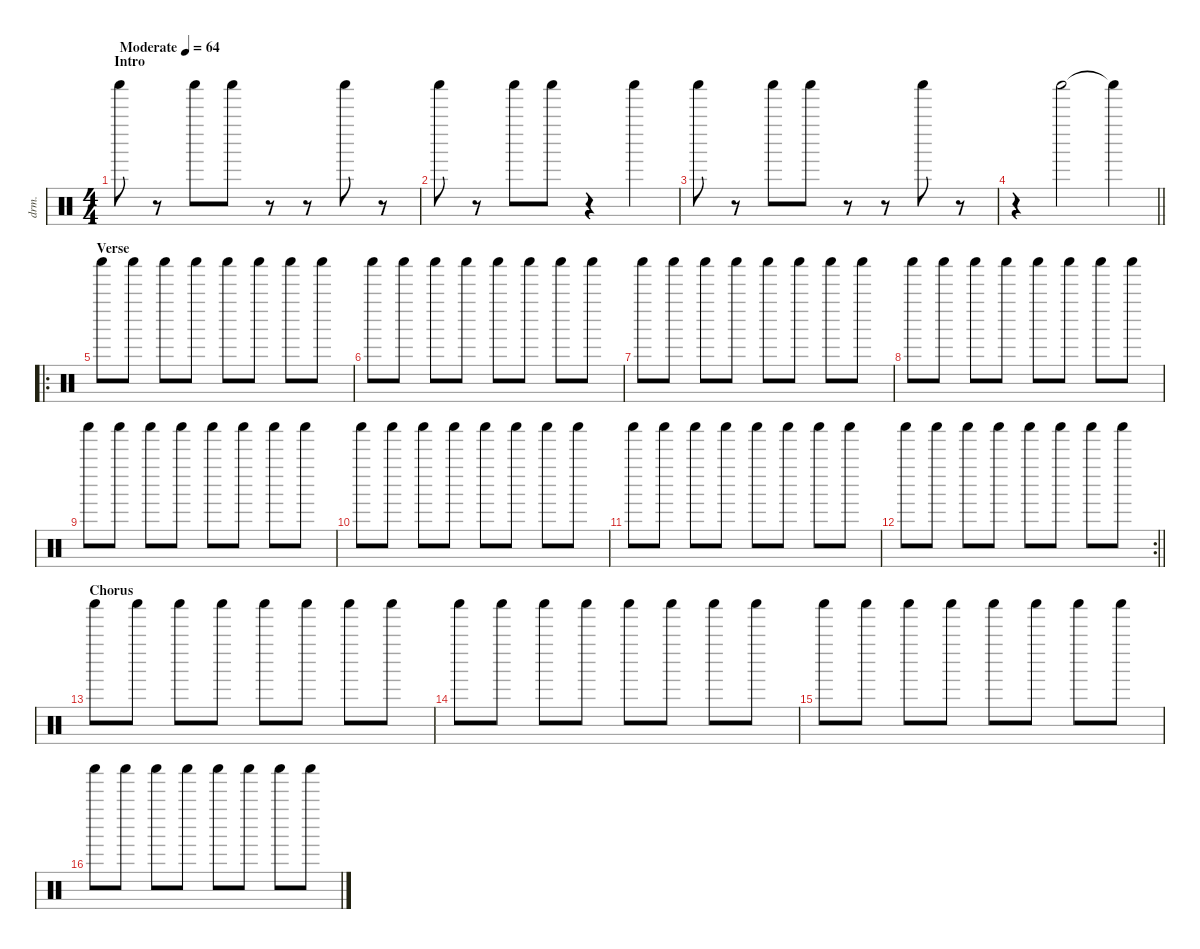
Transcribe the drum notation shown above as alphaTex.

\defaultSystemsLayout 4
\hideDynamics
\bracketExtendMode nobrackets
\track ("Percussions" "drm.") {instrument percussion}
\staff {score}
\articulation defaults
\ts (4 4)
\beaming (8 2 2 2 2)
\section ("" "Intro")
\tempo (64 "Moderate")
\clef neutral
\ks c "Shaker (hit)".8{dy f}
r.8 "Shaker (hit)".8 "Shaker (hit)".8 r.8 r.8 "Shaker (hit)".8 r.8 |
"Shaker (hit)".8 r.8 "Shaker (hit)".8 "Shaker (hit)".8 r.4 "Shaker (hit)".4{dy mp} |
"Shaker (hit)".8{dy f} r.8 "Shaker (hit)".8 "Shaker (hit)".8 r.8 r.8 "Shaker (hit)".8 r.8 |
\barLineRight lightlight
r.4 "Shaker (hit)".2{dy mf} "Shaker (hit)"{t}.4{dy f} |
\ro
\section ("" "Verse")
"Shaker (hit)".8 "Shaker (hit)".8 "Shaker (hit)".8 "Shaker (hit)".8 "Shaker (hit)".8 "Shaker (hit)".8 "Shaker (hit)".8 "Shaker (hit)".8 |
"Shaker (hit)".8 "Shaker (hit)".8 "Shaker (hit)".8 "Shaker (hit)".8 "Shaker (hit)".8 "Shaker (hit)".8 "Shaker (hit)".8 "Shaker (hit)".8 |
"Shaker (hit)".8 "Shaker (hit)".8 "Shaker (hit)".8 "Shaker (hit)".8 "Shaker (hit)".8 "Shaker (hit)".8 "Shaker (hit)".8 "Shaker (hit)".8 |
"Shaker (hit)".8 "Shaker (hit)".8 "Shaker (hit)".8 "Shaker (hit)".8 "Shaker (hit)".8 "Shaker (hit)".8 "Shaker (hit)".8 "Shaker (hit)".8 |
"Shaker (hit)".8 "Shaker (hit)".8 "Shaker (hit)".8 "Shaker (hit)".8 "Shaker (hit)".8 "Shaker (hit)".8 "Shaker (hit)".8 "Shaker (hit)".8 |
"Shaker (hit)".8 "Shaker (hit)".8 "Shaker (hit)".8 "Shaker (hit)".8 "Shaker (hit)".8 "Shaker (hit)".8 "Shaker (hit)".8 "Shaker (hit)".8 |
"Shaker (hit)".8 "Shaker (hit)".8 "Shaker (hit)".8 "Shaker (hit)".8 "Shaker (hit)".8 "Shaker (hit)".8 "Shaker (hit)".8 "Shaker (hit)".8 |
\rc 2
\barLineRight lightlight "Shaker (hit)".8 "Shaker (hit)".8 "Shaker (hit)".8 "Shaker (hit)".8 "Shaker (hit)".8 "Shaker (hit)".8 "Shaker (hit)".8 "Shaker (hit)".8
|
\section ("" "Chorus")
"Shaker (hit)".8 "Shaker (hit)".8 "Shaker (hit)".8 "Shaker (hit)".8 "Shaker (hit)".8 "Shaker (hit)".8 "Shaker (hit)".8 "Shaker (hit)".8 |
"Shaker (hit)".8 "Shaker (hit)".8 "Shaker (hit)".8 "Shaker (hit)".8 "Shaker (hit)".8 "Shaker (hit)".8 "Shaker (hit)".8 "Shaker (hit)".8 |
"Shaker (hit)".8 "Shaker (hit)".8 "Shaker (hit)".8 "Shaker (hit)".8 "Shaker (hit)".8 "Shaker (hit)".8 "Shaker (hit)".8 "Shaker (hit)".8 |
"Shaker (hit)".8 "Shaker (hit)".8 "Shaker (hit)".8 "Shaker (hit)".8 "Shaker (hit)".8 "Shaker (hit)".8 "Shaker (hit)".8 "Shaker (hit)".8
